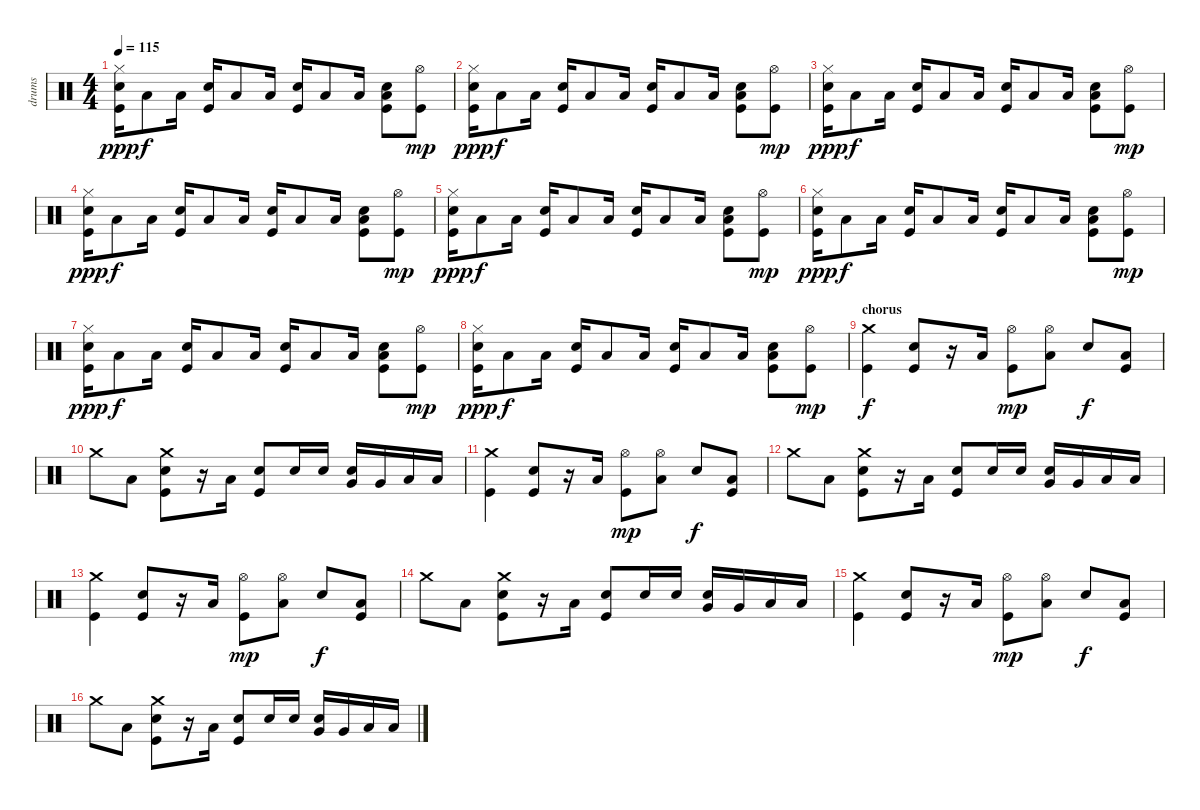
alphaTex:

\track ("drums" "drums") {instrument percussion}
\staff {score}
\articulation defaults
\ts (4 4)
\tempo 115
\clef neutral
\ks c
("Kick (hit)" "Electric Snare (hit)" "Hi-Hat (closed)").16{dy ppp} "Low Floor Tom (hit)".8{dy f} "Low Floor Tom (hit)".16 ("Kick (hit)" "Electric Snare (hit)").16 "Low Floor Tom (hit)".8 "Low Floor Tom (hit)".16 ("Kick (hit)" "Electric Snare (hit)").16 "Low Floor Tom (hit)".8 "Low Floor Tom (hit)".16 ("Kick (hit)" "Low Floor Tom (hit)" "Electric Snare (hit)").8 ("Kick (hit)" "Hi-Hat (open)").8{dy mp} |
("Kick (hit)" "Electric Snare (hit)" "Hi-Hat (closed)").16{dy ppp} "Low Floor Tom (hit)".8{dy f} "Low Floor Tom (hit)".16 ("Kick (hit)" "Electric Snare (hit)").16 "Low Floor Tom (hit)".8 "Low Floor Tom (hit)".16 ("Kick (hit)" "Electric Snare (hit)").16 "Low Floor Tom (hit)".8 "Low Floor Tom (hit)".16 ("Kick (hit)" "Low Floor Tom (hit)" "Electric Snare (hit)").8 ("Kick (hit)" "Hi-Hat (open)").8{dy mp} |
("Kick (hit)" "Electric Snare (hit)" "Hi-Hat (closed)").16{dy ppp} "Low Floor Tom (hit)".8{dy f} "Low Floor Tom (hit)".16 ("Kick (hit)" "Electric Snare (hit)").16 "Low Floor Tom (hit)".8 "Low Floor Tom (hit)".16 ("Kick (hit)" "Electric Snare (hit)").16 "Low Floor Tom (hit)".8 "Low Floor Tom (hit)".16 ("Kick (hit)" "Low Floor Tom (hit)" "Electric Snare (hit)").8 ("Kick (hit)" "Hi-Hat (open)").8{dy mp} |
("Kick (hit)" "Electric Snare (hit)" "Hi-Hat (closed)").16{dy ppp} "Low Floor Tom (hit)".8{dy f} "Low Floor Tom (hit)".16 ("Kick (hit)" "Electric Snare (hit)").16 "Low Floor Tom (hit)".8 "Low Floor Tom (hit)".16 ("Kick (hit)" "Electric Snare (hit)").16 "Low Floor Tom (hit)".8 "Low Floor Tom (hit)".16 ("Kick (hit)" "Low Floor Tom (hit)" "Electric Snare (hit)").8 ("Kick (hit)" "Hi-Hat (open)").8{dy mp} |
("Kick (hit)" "Electric Snare (hit)" "Hi-Hat (closed)").16{dy ppp} "Low Floor Tom (hit)".8{dy f} "Low Floor Tom (hit)".16 ("Kick (hit)" "Electric Snare (hit)").16 "Low Floor Tom (hit)".8 "Low Floor Tom (hit)".16 ("Kick (hit)" "Electric Snare (hit)").16 "Low Floor Tom (hit)".8 "Low Floor Tom (hit)".16 ("Kick (hit)" "Low Floor Tom (hit)" "Electric Snare (hit)").8 ("Kick (hit)" "Hi-Hat (open)").8{dy mp} |
("Kick (hit)" "Electric Snare (hit)" "Hi-Hat (closed)").16{dy ppp} "Low Floor Tom (hit)".8{dy f} "Low Floor Tom (hit)".16 ("Kick (hit)" "Electric Snare (hit)").16 "Low Floor Tom (hit)".8 "Low Floor Tom (hit)".16 ("Kick (hit)" "Electric Snare (hit)").16 "Low Floor Tom (hit)".8 "Low Floor Tom (hit)".16 ("Kick (hit)" "Low Floor Tom (hit)" "Electric Snare (hit)").8 ("Kick (hit)" "Hi-Hat (open)").8{dy mp} |
("Kick (hit)" "Electric Snare (hit)" "Hi-Hat (closed)").16{dy ppp} "Low Floor Tom (hit)".8{dy f} "Low Floor Tom (hit)".16 ("Kick (hit)" "Electric Snare (hit)").16 "Low Floor Tom (hit)".8 "Low Floor Tom (hit)".16 ("Kick (hit)" "Electric Snare (hit)").16 "Low Floor Tom (hit)".8 "Low Floor Tom (hit)".16 ("Kick (hit)" "Low Floor Tom (hit)" "Electric Snare (hit)").8 ("Kick (hit)" "Hi-Hat (open)").8{dy mp} |
("Kick (hit)" "Electric Snare (hit)" "Hi-Hat (closed)").16{dy ppp} "Low Floor Tom (hit)".8{dy f} "Low Floor Tom (hit)".16 ("Kick (hit)" "Electric Snare (hit)").16 "Low Floor Tom (hit)".8 "Low Floor Tom (hit)".16 ("Kick (hit)" "Electric Snare (hit)").16 "Low Floor Tom (hit)".8 "Low Floor Tom (hit)".16 ("Kick (hit)" "Low Floor Tom (hit)" "Electric Snare (hit)").8 ("Kick (hit)" "Hi-Hat (open)").8{dy mp} |
\section ("" "chorus")
("Kick (hit)" "Crash medium (hit)").4{dy f} ("Kick (hit)" "Electric Snare (hit)").8 r.16 "Low Floor Tom (hit)".16 ("Kick (hit)" "Hi-Hat (open)").8{dy mp} ("Low Floor Tom (hit)" "Hi-Hat (open)").8 "Electric Snare (hit)".8{dy f} ("Kick (hit)" "Low Floor Tom (hit)").8 |
"Crash medium (hit)".8 "Low Floor Tom (hit)".8 ("Kick (hit)" "Electric Snare (hit)" "Crash medium (hit)").8 r.16 "Low Floor Tom (hit)".16 ("Kick (hit)" "Electric Snare (hit)").8 "Electric Snare (hit)".16 "Electric Snare (hit)".16 ("Electric Snare (hit)" "Very Low Tom (hit)").16 "Very Low Tom (hit)".16 "Low Floor Tom (hit)".16 "Low Floor Tom (hit)".16 |
("Kick (hit)" "Crash medium (hit)").4 ("Kick (hit)" "Electric Snare (hit)").8 r.16 "Low Floor Tom (hit)".16 ("Kick (hit)" "Hi-Hat (open)").8{dy mp} ("Low Floor Tom (hit)" "Hi-Hat (open)").8 "Electric Snare (hit)".8{dy f} ("Kick (hit)" "Low Floor Tom (hit)").8 |
"Crash medium (hit)".8 "Low Floor Tom (hit)".8 ("Kick (hit)" "Electric Snare (hit)" "Crash medium (hit)").8 r.16 "Low Floor Tom (hit)".16 ("Kick (hit)" "Electric Snare (hit)").8 "Electric Snare (hit)".16 "Electric Snare (hit)".16 ("Electric Snare (hit)" "Very Low Tom (hit)").16 "Very Low Tom (hit)".16 "Low Floor Tom (hit)".16 "Low Floor Tom (hit)".16 |
("Kick (hit)" "Crash medium (hit)").4 ("Kick (hit)" "Electric Snare (hit)").8 r.16 "Low Floor Tom (hit)".16 ("Kick (hit)" "Hi-Hat (open)").8{dy mp} ("Low Floor Tom (hit)" "Hi-Hat (open)").8 "Electric Snare (hit)".8{dy f} ("Kick (hit)" "Low Floor Tom (hit)").8 |
"Crash medium (hit)".8 "Low Floor Tom (hit)".8 ("Kick (hit)" "Electric Snare (hit)" "Crash medium (hit)").8 r.16 "Low Floor Tom (hit)".16 ("Kick (hit)" "Electric Snare (hit)").8 "Electric Snare (hit)".16 "Electric Snare (hit)".16 ("Electric Snare (hit)" "Very Low Tom (hit)").16 "Very Low Tom (hit)".16 "Low Floor Tom (hit)".16 "Low Floor Tom (hit)".16 |
("Kick (hit)" "Crash medium (hit)").4 ("Kick (hit)" "Electric Snare (hit)").8 r.16 "Low Floor Tom (hit)".16 ("Kick (hit)" "Hi-Hat (open)").8{dy mp} ("Low Floor Tom (hit)" "Hi-Hat (open)").8 "Electric Snare (hit)".8{dy f} ("Kick (hit)" "Low Floor Tom (hit)").8 |
"Crash medium (hit)".8 "Low Floor Tom (hit)".8 ("Kick (hit)" "Electric Snare (hit)" "Crash medium (hit)").8 r.16 "Low Floor Tom (hit)".16 ("Kick (hit)" "Electric Snare (hit)").8 "Electric Snare (hit)".16 "Electric Snare (hit)".16 ("Electric Snare (hit)" "Very Low Tom (hit)").16 "Very Low Tom (hit)".16 "Low Floor Tom (hit)".16 "Low Floor Tom (hit)".16
